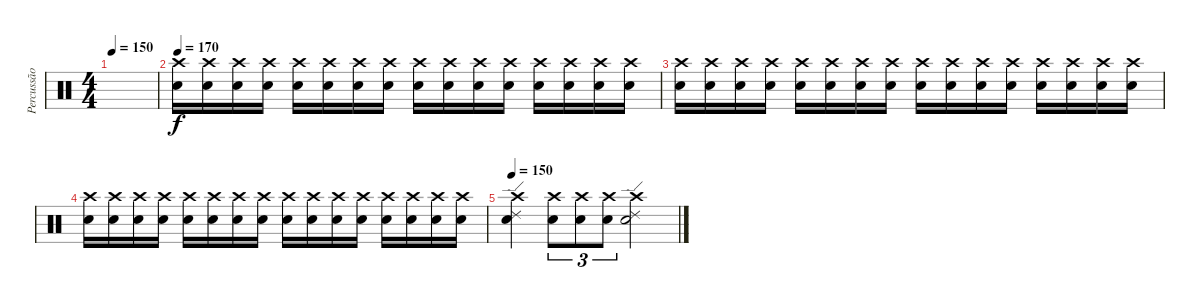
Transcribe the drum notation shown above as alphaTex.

\track ("Percussão" "Percussão") {instrument percussion}
\staff {score}
\articulation defaults
\ts (4 4)
\tempo 150
\clef neutral
\ks c
|
\tempo 170
("Crash high (hit)" "Snare (hit) 2").16{dy f volume 0} ("Crash high (hit)" "Snare (hit) 2").16 ("Crash high (hit)" "Snare (hit) 2").16 ("Crash high (hit)" "Snare (hit) 2").16 ("Crash high (hit)" "Snare (hit) 2").16{volume 1} ("Crash high (hit)" "Snare (hit) 2").16 ("Crash high (hit)" "Snare (hit) 2").16{volume 2} ("Crash high (hit)" "Snare (hit) 2").16 ("Crash high (hit)" "Snare (hit) 2").16{volume 3} ("Crash high (hit)" "Snare (hit) 2").16 ("Crash high (hit)" "Snare (hit) 2").16{volume 4} ("Crash high (hit)" "Snare (hit) 2").16 ("Crash high (hit)" "Snare (hit) 2").16{volume 5} ("Crash high (hit)" "Snare (hit) 2").16 ("Crash high (hit)" "Snare (hit) 2").16{volume 6} ("Crash high (hit)" "Snare (hit) 2").16 |
("Crash high (hit)" "Snare (hit) 2").16{volume 6} ("Crash high (hit)" "Snare (hit) 2").16 ("Crash high (hit)" "Snare (hit) 2").16{volume 8} ("Crash high (hit)" "Snare (hit) 2").16 ("Crash high (hit)" "Snare (hit) 2").16{volume 10} ("Crash high (hit)" "Snare (hit) 2").16 ("Crash high (hit)" "Snare (hit) 2").16{volume 11} ("Crash high (hit)" "Snare (hit) 2").16 ("Crash high (hit)" "Snare (hit) 2").16{volume 12} ("Crash high (hit)" "Snare (hit) 2").16 ("Crash high (hit)" "Snare (hit) 2").16{volume 13} ("Crash high (hit)" "Snare (hit) 2").16 ("Crash high (hit)" "Snare (hit) 2").16 ("Crash high (hit)" "Snare (hit) 2").16 ("Crash high (hit)" "Snare (hit) 2").16 ("Crash high (hit)" "Snare (hit) 2").16 |
("Crash high (hit)" "Snare (hit) 2").16 ("Crash high (hit)" "Snare (hit) 2").16 ("Crash high (hit)" "Snare (hit) 2").16 ("Crash high (hit)" "Snare (hit) 2").16 ("Crash high (hit)" "Snare (hit) 2").16 ("Crash high (hit)" "Snare (hit) 2").16 ("Crash high (hit)" "Snare (hit) 2").16 ("Crash high (hit)" "Snare (hit) 2").16 ("Crash high (hit)" "Snare (hit) 2").16 ("Crash high (hit)" "Snare (hit) 2").16 ("Crash high (hit)" "Snare (hit) 2").16 ("Crash high (hit)" "Snare (hit) 2").16 ("Crash high (hit)" "Snare (hit) 2").16 ("Crash high (hit)" "Snare (hit) 2").16 ("Crash high (hit)" "Snare (hit) 2").16 ("Crash high (hit)" "Snare (hit) 2").16 |
\tempo 150
("Ride (edge) 2" "Snare (hit) 2" "Crash high (hit)").4{volume 15} ("Snare (hit) 2" "Crash high (hit)").8{tu (3 2)} ("Snare (hit) 2" "Crash high (hit)").8{tu (3 2)} ("Snare (hit) 2" "Crash high (hit)").8{tu (3 2)} ("Ride (edge) 2" "Snare (hit) 2" "Crash high (hit)").2
